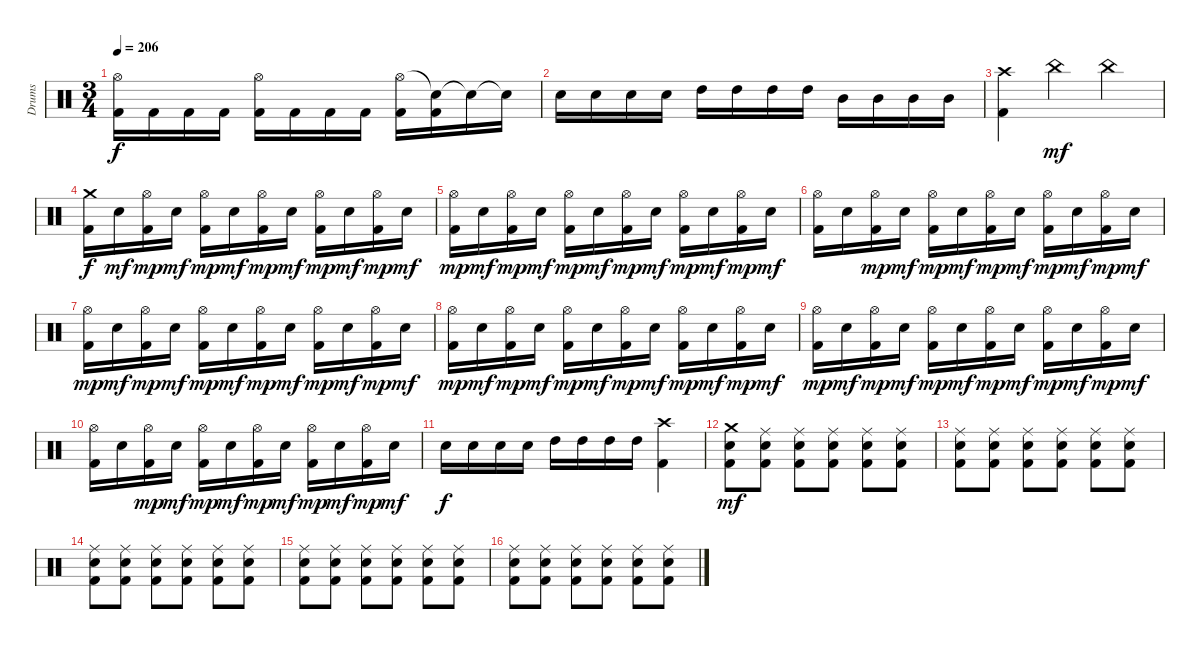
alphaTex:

\track ("Drums" "Drums") {instrument percussion}
\staff {score}
\articulation defaults
\ts (3 4)
\tempo 206
\clef neutral
\ks c
("Hi-Hat (open)" "Kick (hit) 2").16{dy f} "Kick (hit) 2".16 "Kick (hit) 2".16 "Kick (hit) 2".16 ("Hi-Hat (open)" "Kick (hit) 2").16 "Kick (hit) 2".16 "Kick (hit) 2".16 "Kick (hit) 2".16 ("Hi-Hat (open)" "Kick (hit) 2").16 ("Snare (hit)"{t} "Kick (hit) 2").16 "Snare (hit)"{t}.16 "Snare (hit)"{t}.16 |
"Electric Snare (hit)".16 "Electric Snare (hit)".16 "Electric Snare (hit)".16 "Electric Snare (hit)".16 "High Tom (hit)".16 "High Tom (hit)".16 "High Tom (hit)".16 "High Tom (hit)".16 "Mid Tom (hit)".16 "Mid Tom (hit)".16 "Mid Tom (hit)".16 "Mid Tom (hit)".16 |
("Crash high (hit)" "Kick (hit) 2").4 "China (hit)".4{dy mf} "China (hit)".4 |
("Crash medium (hit)" "Kick (hit) 2").16{dy f} "Electric Snare (hit)".16{dy mf} ("Hi-Hat (open)" "Kick (hit) 2").16{dy mp} "Electric Snare (hit)".16{dy mf} ("Hi-Hat (open)" "Kick (hit) 2").16{dy mp} "Electric Snare (hit)".16{dy mf} ("Hi-Hat (open)" "Kick (hit) 2").16{dy mp} "Electric Snare (hit)".16{dy mf} ("Hi-Hat (open)" "Kick (hit) 2").16{dy mp} "Electric Snare (hit)".16{dy mf} ("Hi-Hat (open)" "Kick (hit) 2").16{dy mp} "Electric Snare (hit)".16{dy mf} |
("Hi-Hat (open)" "Kick (hit) 2").16{dy mp} "Electric Snare (hit)".16{dy mf} ("Hi-Hat (open)" "Kick (hit) 2").16{dy mp} "Electric Snare (hit)".16{dy mf} ("Hi-Hat (open)" "Kick (hit) 2").16{dy mp} "Electric Snare (hit)".16{dy mf} ("Hi-Hat (open)" "Kick (hit) 2").16{dy mp} "Electric Snare (hit)".16{dy mf} ("Hi-Hat (open)" "Kick (hit) 2").16{dy mp} "Electric Snare (hit)".16{dy mf} ("Hi-Hat (open)" "Kick (hit) 2").16{dy mp} "Electric Snare (hit)".16{dy mf} |
("Hi-Hat (open)" "Kick (hit) 2").16 "Electric Snare (hit)".16 ("Hi-Hat (open)" "Kick (hit) 2").16{dy mp} "Electric Snare (hit)".16{dy mf} ("Hi-Hat (open)" "Kick (hit) 2").16{dy mp} "Electric Snare (hit)".16{dy mf} ("Hi-Hat (open)" "Kick (hit) 2").16{dy mp} "Electric Snare (hit)".16{dy mf} ("Hi-Hat (open)" "Kick (hit) 2").16{dy mp} "Electric Snare (hit)".16{dy mf} ("Hi-Hat (open)" "Kick (hit) 2").16{dy mp} "Electric Snare (hit)".16{dy mf} |
("Hi-Hat (open)" "Kick (hit) 2").16{dy mp} "Electric Snare (hit)".16{dy mf} ("Hi-Hat (open)" "Kick (hit) 2").16{dy mp} "Electric Snare (hit)".16{dy mf} ("Hi-Hat (open)" "Kick (hit) 2").16{dy mp} "Electric Snare (hit)".16{dy mf} ("Hi-Hat (open)" "Kick (hit) 2").16{dy mp} "Electric Snare (hit)".16{dy mf} ("Hi-Hat (open)" "Kick (hit) 2").16{dy mp} "Electric Snare (hit)".16{dy mf} ("Hi-Hat (open)" "Kick (hit) 2").16{dy mp} "Electric Snare (hit)".16{dy mf} |
("Hi-Hat (open)" "Kick (hit) 2").16{dy mp} "Electric Snare (hit)".16{dy mf} ("Hi-Hat (open)" "Kick (hit) 2").16{dy mp} "Electric Snare (hit)".16{dy mf} ("Hi-Hat (open)" "Kick (hit) 2").16{dy mp} "Electric Snare (hit)".16{dy mf} ("Hi-Hat (open)" "Kick (hit) 2").16{dy mp} "Electric Snare (hit)".16{dy mf} ("Hi-Hat (open)" "Kick (hit) 2").16{dy mp} "Electric Snare (hit)".16{dy mf} ("Hi-Hat (open)" "Kick (hit) 2").16{dy mp} "Electric Snare (hit)".16{dy mf} |
("Hi-Hat (open)" "Kick (hit) 2").16{dy mp} "Electric Snare (hit)".16{dy mf} ("Hi-Hat (open)" "Kick (hit) 2").16{dy mp} "Electric Snare (hit)".16{dy mf} ("Hi-Hat (open)" "Kick (hit) 2").16{dy mp} "Electric Snare (hit)".16{dy mf} ("Hi-Hat (open)" "Kick (hit) 2").16{dy mp} "Electric Snare (hit)".16{dy mf} ("Hi-Hat (open)" "Kick (hit) 2").16{dy mp} "Electric Snare (hit)".16{dy mf} ("Hi-Hat (open)" "Kick (hit) 2").16{dy mp} "Electric Snare (hit)".16{dy mf} |
("Hi-Hat (open)" "Kick (hit) 2").16 "Electric Snare (hit)".16 ("Hi-Hat (open)" "Kick (hit) 2").16{dy mp} "Electric Snare (hit)".16{dy mf} ("Hi-Hat (open)" "Kick (hit) 2").16{dy mp} "Electric Snare (hit)".16{dy mf} ("Hi-Hat (open)" "Kick (hit) 2").16{dy mp} "Electric Snare (hit)".16{dy mf} ("Hi-Hat (open)" "Kick (hit) 2").16{dy mp} "Electric Snare (hit)".16{dy mf} ("Hi-Hat (open)" "Kick (hit) 2").16{dy mp} "Electric Snare (hit)".16{dy mf} |
"Electric Snare (hit)".16{dy f} "Electric Snare (hit)".16 "Electric Snare (hit)".16 "Electric Snare (hit)".16 "High Tom (hit)".16 "High Tom (hit)".16 "High Tom (hit)".16 "High Tom (hit)".16 ("Crash high (hit)" "Kick (hit) 2").4 |
("Crash medium (hit)" "Electric Snare (hit)" "Kick (hit) 2").8{dy mf} ("Ride (middle)" "Electric Snare (hit)" "Kick (hit) 2").8 ("Ride (middle)" "Electric Snare (hit)" "Kick (hit) 2").8 ("Ride (middle)" "Electric Snare (hit)" "Kick (hit) 2").8 ("Ride (middle)" "Electric Snare (hit)" "Kick (hit) 2").8 ("Ride (middle)" "Electric Snare (hit)" "Kick (hit) 2").8 |
("Ride (middle)" "Electric Snare (hit)" "Kick (hit) 2").8 ("Ride (middle)" "Electric Snare (hit)" "Kick (hit) 2").8 ("Ride (middle)" "Electric Snare (hit)" "Kick (hit) 2").8 ("Ride (middle)" "Electric Snare (hit)" "Kick (hit) 2").8 ("Ride (middle)" "Electric Snare (hit)" "Kick (hit) 2").8 ("Ride (middle)" "Electric Snare (hit)" "Kick (hit) 2").8 |
("Ride (middle)" "Electric Snare (hit)" "Kick (hit) 2").8 ("Ride (middle)" "Electric Snare (hit)" "Kick (hit) 2").8 ("Ride (middle)" "Electric Snare (hit)" "Kick (hit) 2").8 ("Ride (middle)" "Electric Snare (hit)" "Kick (hit) 2").8 ("Ride (middle)" "Electric Snare (hit)" "Kick (hit) 2").8 ("Ride (middle)" "Electric Snare (hit)" "Kick (hit) 2").8 |
("Ride (middle)" "Electric Snare (hit)" "Kick (hit) 2").8 ("Ride (middle)" "Electric Snare (hit)" "Kick (hit) 2").8 ("Ride (middle)" "Electric Snare (hit)" "Kick (hit) 2").8 ("Ride (middle)" "Electric Snare (hit)" "Kick (hit) 2").8 ("Ride (middle)" "Electric Snare (hit)" "Kick (hit) 2").8 ("Ride (middle)" "Electric Snare (hit)" "Kick (hit) 2").8 |
("Ride (middle)" "Electric Snare (hit)" "Kick (hit) 2").8 ("Ride (middle)" "Electric Snare (hit)" "Kick (hit) 2").8 ("Ride (middle)" "Electric Snare (hit)" "Kick (hit) 2").8 ("Ride (middle)" "Electric Snare (hit)" "Kick (hit) 2").8 ("Ride (middle)" "Electric Snare (hit)" "Kick (hit) 2").8 ("Ride (middle)" "Electric Snare (hit)" "Kick (hit) 2").8
